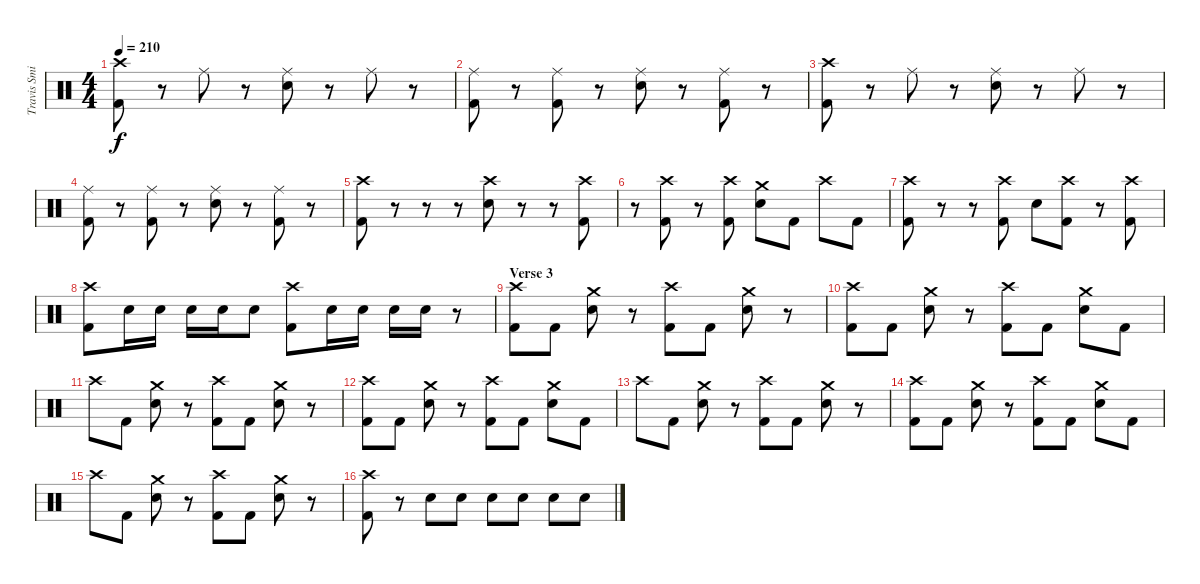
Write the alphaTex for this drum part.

\track ("Travis Smith" "Travis Smi") {instrument percussion}
\staff {score}
\articulation defaults
\ts (4 4)
\tempo 210
\clef neutral
\ks c
("Crash high (hit)" "Kick (hit) 2").8{dy f} r.8 "Ride (middle)".8 r.8 ("Ride (middle)" "Electric Snare (hit)").8 r.8 "Ride (middle)".8 r.8 |
("Ride (middle)" "Kick (hit) 2").8 r.8 ("Ride (middle)" "Kick (hit) 2").8 r.8 ("Ride (middle)" "Electric Snare (hit)").8 r.8 ("Ride (middle)" "Kick (hit) 2").8 r.8 |
("Crash high (hit)" "Kick (hit) 2").8 r.8 "Ride (middle)".8 r.8 ("Ride (middle)" "Electric Snare (hit)").8 r.8 "Ride (middle)".8 r.8 |
("Ride (middle)" "Kick (hit) 2").8 r.8 ("Ride (middle)" "Kick (hit) 2").8 r.8 ("Ride (middle)" "Electric Snare (hit)").8 r.8 ("Ride (middle)" "Kick (hit) 2").8 r.8 |
("Crash high (hit)" "Kick (hit) 2").8 r.8 r.8 r.8 ("Crash high (hit)" "Electric Snare (hit)").8 r.8 r.8 ("Crash high (hit)" "Kick (hit) 2").8 |
r.8 ("Crash high (hit)" "Kick (hit) 2").8 r.8 ("Crash high (hit)" "Kick (hit) 2").8 ("Crash medium (hit)" "Electric Snare (hit)").8 "Kick (hit) 2".8 "Crash high (hit)".8 "Kick (hit) 2".8 |
("Crash high (hit)" "Kick (hit) 2").8 r.8 r.8 ("Crash high (hit)" "Kick (hit) 2").8 "Electric Snare (hit)".8 ("Crash high (hit)" "Kick (hit) 2").8 r.8 ("Crash high (hit)" "Kick (hit) 2").8 |
("Crash high (hit)" "Kick (hit) 2").8 "Electric Snare (hit)".16 "Electric Snare (hit)".16 "Electric Snare (hit)".16 "Electric Snare (hit)".16 "Electric Snare (hit)".8 ("Crash high (hit)" "Kick (hit) 2").8 "Electric Snare (hit)".16 "Electric Snare (hit)".16 "Electric Snare (hit)".16 "Electric Snare (hit)".16 r.8 |
\section ("" "Verse 3")
("Crash high (hit)" "Kick (hit) 2").8 "Kick (hit) 2".8 ("Crash medium (hit)" "Electric Snare (hit)").8 r.8 ("Crash high (hit)" "Kick (hit) 2").8 "Kick (hit) 2".8 ("Crash medium (hit)" "Electric Snare (hit)").8 r.8 |
("Crash high (hit)" "Kick (hit) 2").8 "Kick (hit) 2".8 ("Crash medium (hit)" "Electric Snare (hit)").8 r.8 ("Crash high (hit)" "Kick (hit) 2").8 "Kick (hit) 2".8 ("Crash medium (hit)" "Electric Snare (hit)").8 "Kick (hit) 2".8 |
"Crash high (hit)".8 "Kick (hit) 2".8 ("Crash medium (hit)" "Electric Snare (hit)").8 r.8 ("Crash high (hit)" "Kick (hit) 2").8 "Kick (hit) 2".8 ("Crash medium (hit)" "Electric Snare (hit)").8 r.8 |
("Crash high (hit)" "Kick (hit) 2").8 "Kick (hit) 2".8 ("Crash medium (hit)" "Electric Snare (hit)").8 r.8 ("Crash high (hit)" "Kick (hit) 2").8 "Kick (hit) 2".8 ("Crash medium (hit)" "Electric Snare (hit)").8 "Kick (hit) 2".8 |
"Crash high (hit)".8 "Kick (hit) 2".8 ("Crash medium (hit)" "Electric Snare (hit)").8 r.8 ("Crash high (hit)" "Kick (hit) 2").8 "Kick (hit) 2".8 ("Crash medium (hit)" "Electric Snare (hit)").8 r.8 |
("Crash high (hit)" "Kick (hit) 2").8 "Kick (hit) 2".8 ("Crash medium (hit)" "Electric Snare (hit)").8 r.8 ("Crash high (hit)" "Kick (hit) 2").8 "Kick (hit) 2".8 ("Crash medium (hit)" "Electric Snare (hit)").8 "Kick (hit) 2".8 |
"Crash high (hit)".8 "Kick (hit) 2".8 ("Crash medium (hit)" "Electric Snare (hit)").8 r.8 ("Crash high (hit)" "Kick (hit) 2").8 "Kick (hit) 2".8 ("Crash medium (hit)" "Electric Snare (hit)").8 r.8 |
("Crash high (hit)" "Kick (hit) 2").8 r.8 "Electric Snare (hit)".8 "Electric Snare (hit)".8 "Electric Snare (hit)".8 "Electric Snare (hit)".8 "Electric Snare (hit)".8 "Electric Snare (hit)".8
